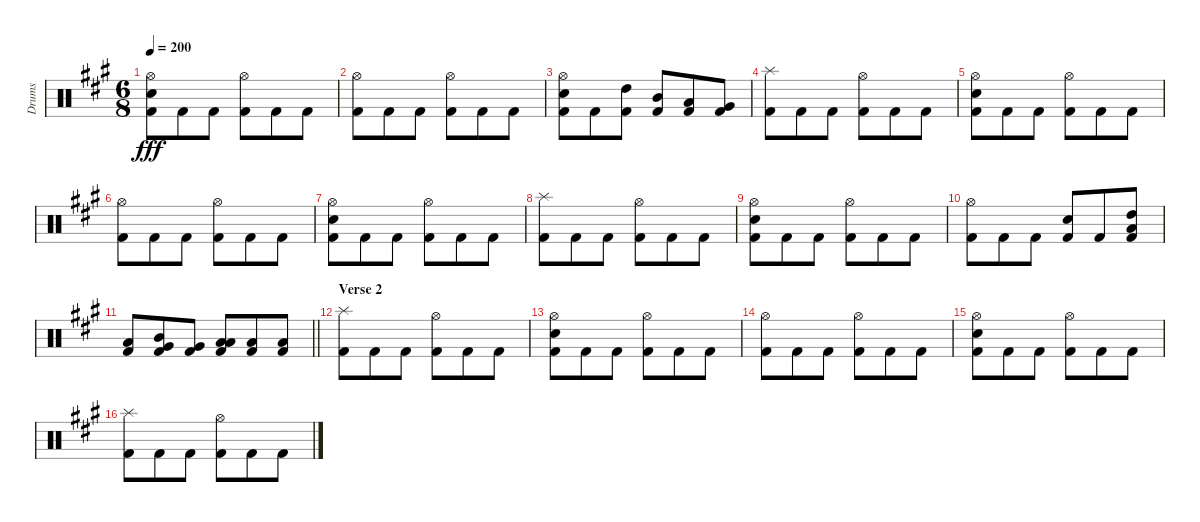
\track ("Drums" "Drums") {instrument percussion}
\staff {score}
\articulation defaults
\ts (6 8)
\tempo 200
\clef neutral
\ks f#minor
("Hi-Hat (open)" "Electric Snare (hit)" "Kick (hit) 2").8{dy fff} "Kick (hit) 2".8 "Kick (hit) 2".8 ("Hi-Hat (open)" "Kick (hit) 2").8 "Kick (hit) 2".8 "Kick (hit) 2".8 |
("Hi-Hat (open)" "Kick (hit) 2").8 "Kick (hit) 2".8 "Kick (hit) 2".8 ("Hi-Hat (open)" "Kick (hit) 2").8 "Kick (hit) 2".8 "Kick (hit) 2".8 |
("Hi-Hat (open)" "Electric Snare (hit)" "Kick (hit) 2").8 "Kick (hit) 2".8 ("High Tom (hit)" "Kick (hit) 2").8 ("Mid Tom (hit)" "Kick (hit) 2").8 ("Low Tom (hit)" "Kick (hit) 2").8 ("Very Low Tom (hit)" "Kick (hit) 2").8 |
("Splash (hit)" "Kick (hit) 2").8 "Kick (hit) 2".8 "Kick (hit) 2".8 ("Hi-Hat (open)" "Kick (hit) 2").8 "Kick (hit) 2".8 "Kick (hit) 2".8 |
("Hi-Hat (open)" "Electric Snare (hit)" "Kick (hit) 2").8 "Kick (hit) 2".8 "Kick (hit) 2".8 ("Hi-Hat (open)" "Kick (hit) 2").8 "Kick (hit) 2".8 "Kick (hit) 2".8 |
("Hi-Hat (open)" "Kick (hit) 2").8 "Kick (hit) 2".8 "Kick (hit) 2".8 ("Hi-Hat (open)" "Kick (hit) 2").8 "Kick (hit) 2".8 "Kick (hit) 2".8 |
("Hi-Hat (open)" "Electric Snare (hit)" "Kick (hit) 2").8 "Kick (hit) 2".8 "Kick (hit) 2".8 ("Hi-Hat (open)" "Kick (hit) 2").8 "Kick (hit) 2".8 "Kick (hit) 2".8 |
("Splash (hit)" "Kick (hit) 2").8 "Kick (hit) 2".8 "Kick (hit) 2".8 ("Hi-Hat (open)" "Kick (hit) 2").8 "Kick (hit) 2".8 "Kick (hit) 2".8 |
("Hi-Hat (open)" "Electric Snare (hit)" "Kick (hit) 2").8 "Kick (hit) 2".8 "Kick (hit) 2".8 ("Hi-Hat (open)" "Kick (hit) 2").8 "Kick (hit) 2".8 "Kick (hit) 2".8 |
("Hi-Hat (open)" "Kick (hit) 2").8 "Kick (hit) 2".8 "Kick (hit) 2".8 ("Electric Snare (hit)" "Kick (hit) 2").8 "Kick (hit) 2".8 ("High Tom (hit)" "Low Tom (hit)" "Kick (hit) 2").8 |
\barLineRight lightlight
("Low Tom (hit)" "Kick (hit) 2").8 ("Mid Tom (hit)" "Very Low Tom (hit)" "Kick (hit) 2").8 ("Very Low Tom (hit)" "Kick (hit) 2").8 ("Low Tom (hit)" "Low Floor Tom (hit)" "Kick (hit) 2").8 ("Low Floor Tom (hit)" "Kick (hit) 2").8 ("Low Floor Tom (hit)" "Kick (hit) 2").8 |
\section ("" "Verse 2")
("Splash (hit)" "Kick (hit) 2").8 "Kick (hit) 2".8 "Kick (hit) 2".8 ("Hi-Hat (open)" "Kick (hit) 2").8 "Kick (hit) 2".8 "Kick (hit) 2".8 |
("Hi-Hat (open)" "Electric Snare (hit)" "Kick (hit) 2").8 "Kick (hit) 2".8 "Kick (hit) 2".8 ("Hi-Hat (open)" "Kick (hit) 2").8 "Kick (hit) 2".8 "Kick (hit) 2".8 |
("Hi-Hat (open)" "Kick (hit) 2").8 "Kick (hit) 2".8 "Kick (hit) 2".8 ("Hi-Hat (open)" "Kick (hit) 2").8 "Kick (hit) 2".8 "Kick (hit) 2".8 |
("Hi-Hat (open)" "Electric Snare (hit)" "Kick (hit) 2").8 "Kick (hit) 2".8 "Kick (hit) 2".8 ("Hi-Hat (open)" "Kick (hit) 2").8 "Kick (hit) 2".8 "Kick (hit) 2".8 |
("Splash (hit)" "Kick (hit) 2").8 "Kick (hit) 2".8 "Kick (hit) 2".8 ("Hi-Hat (open)" "Kick (hit) 2").8 "Kick (hit) 2".8 "Kick (hit) 2".8
